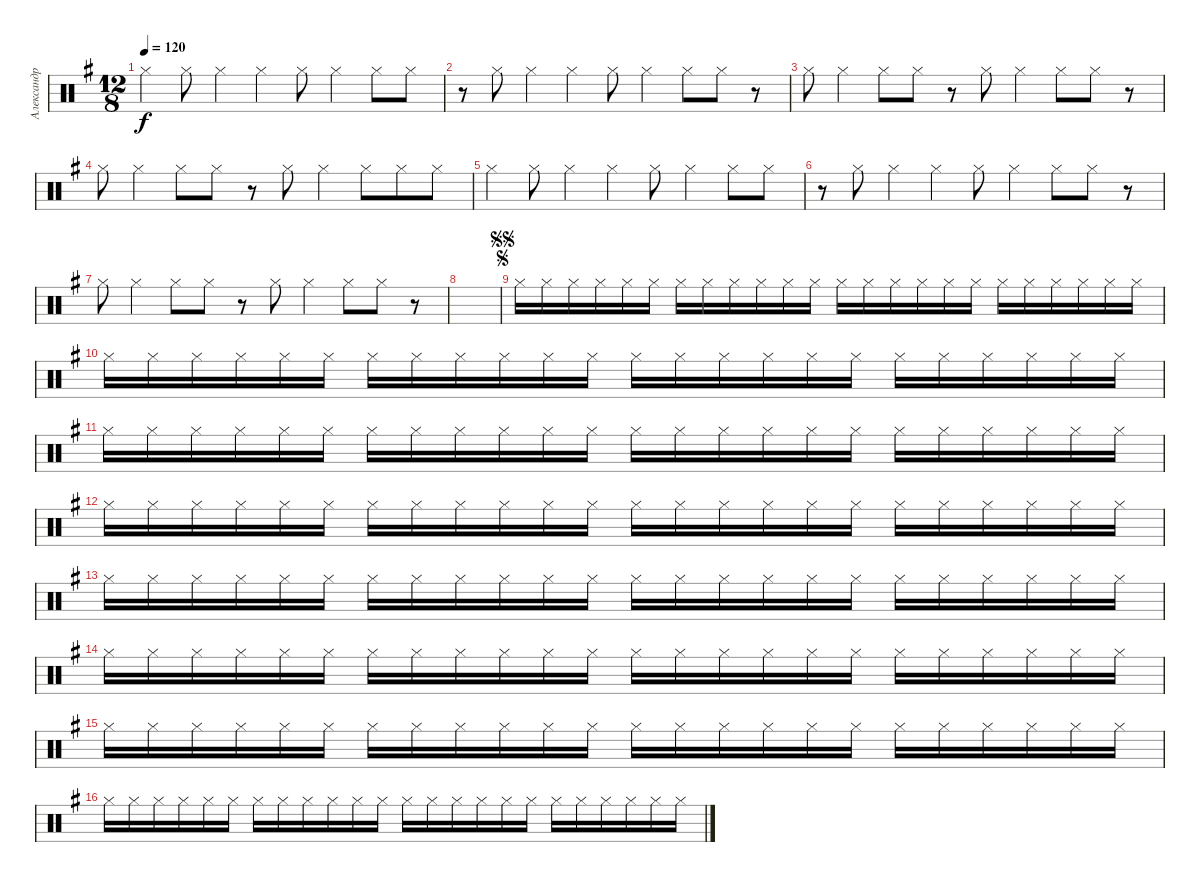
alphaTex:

\track ("Александр Манякин" "Александр ") {instrument percussion}
\staff {score}
\articulation defaults
\ts (12 8)
\tempo 120
\clef neutral
\ks g "Hi-Hat (closed)".4{dy f} "Hi-Hat (closed)".8 "Hi-Hat (closed)".4 "Hi-Hat (closed)".4 "Hi-Hat (closed)".8 "Hi-Hat (closed)".4 "Hi-Hat (closed)".8 "Hi-Hat (closed)".8
|
r.8 "Hi-Hat (closed)".8 "Hi-Hat (closed)".4 "Hi-Hat (closed)".4 "Hi-Hat (closed)".8 "Hi-Hat (closed)".4 "Hi-Hat (closed)".8 "Hi-Hat (closed)".8 r.8 |
"Hi-Hat (closed)".8 "Hi-Hat (closed)".4 "Hi-Hat (closed)".8 "Hi-Hat (closed)".8 r.8 "Hi-Hat (closed)".8 "Hi-Hat (closed)".4 "Hi-Hat (closed)".8 "Hi-Hat (closed)".8 r.8 |
"Hi-Hat (closed)".8 "Hi-Hat (closed)".4 "Hi-Hat (closed)".8 "Hi-Hat (closed)".8 r.8 "Hi-Hat (closed)".8 "Hi-Hat (closed)".4 "Hi-Hat (closed)".8 "Hi-Hat (closed)".8 "Hi-Hat (closed)".8 |
"Hi-Hat (closed)".4 "Hi-Hat (closed)".8 "Hi-Hat (closed)".4 "Hi-Hat (closed)".4 "Hi-Hat (closed)".8 "Hi-Hat (closed)".4 "Hi-Hat (closed)".8 "Hi-Hat (closed)".8 |
r.8 "Hi-Hat (closed)".8 "Hi-Hat (closed)".4 "Hi-Hat (closed)".4 "Hi-Hat (closed)".8 "Hi-Hat (closed)".4 "Hi-Hat (closed)".8 "Hi-Hat (closed)".8 r.8 |
"Hi-Hat (closed)".8 "Hi-Hat (closed)".4 "Hi-Hat (closed)".8 "Hi-Hat (closed)".8 r.8 "Hi-Hat (closed)".8 "Hi-Hat (closed)".4 "Hi-Hat (closed)".8 "Hi-Hat (closed)".8 r.8 |
|
\jump segno
\jump segnosegno "Hi-Hat (closed)".16 "Hi-Hat (closed)".16 "Hi-Hat (closed)".16 "Hi-Hat (closed)".16 "Hi-Hat (closed)".16 "Hi-Hat (closed)".16 "Hi-Hat (closed)".16 "Hi-Hat (closed)".16 "Hi-Hat (closed)".16 "Hi-Hat (closed)".16 "Hi-Hat (closed)".16 "Hi-Hat (closed)".16 "Hi-Hat (closed)".16 "Hi-Hat (closed)".16 "Hi-Hat (closed)".16 "Hi-Hat (closed)".16 "Hi-Hat (closed)".16 "Hi-Hat (closed)".16 "Hi-Hat (closed)".16 "Hi-Hat (closed)".16 "Hi-Hat (closed)".16 "Hi-Hat (closed)".16 "Hi-Hat (closed)".16 "Hi-Hat (closed)".16
|
"Hi-Hat (closed)".16 "Hi-Hat (closed)".16 "Hi-Hat (closed)".16 "Hi-Hat (closed)".16 "Hi-Hat (closed)".16 "Hi-Hat (closed)".16 "Hi-Hat (closed)".16 "Hi-Hat (closed)".16 "Hi-Hat (closed)".16 "Hi-Hat (closed)".16 "Hi-Hat (closed)".16 "Hi-Hat (closed)".16 "Hi-Hat (closed)".16 "Hi-Hat (closed)".16 "Hi-Hat (closed)".16 "Hi-Hat (closed)".16 "Hi-Hat (closed)".16 "Hi-Hat (closed)".16 "Hi-Hat (closed)".16 "Hi-Hat (closed)".16 "Hi-Hat (closed)".16 "Hi-Hat (closed)".16 "Hi-Hat (closed)".16 "Hi-Hat (closed)".16 |
"Hi-Hat (closed)".16 "Hi-Hat (closed)".16 "Hi-Hat (closed)".16 "Hi-Hat (closed)".16 "Hi-Hat (closed)".16 "Hi-Hat (closed)".16 "Hi-Hat (closed)".16 "Hi-Hat (closed)".16 "Hi-Hat (closed)".16 "Hi-Hat (closed)".16 "Hi-Hat (closed)".16 "Hi-Hat (closed)".16 "Hi-Hat (closed)".16 "Hi-Hat (closed)".16 "Hi-Hat (closed)".16 "Hi-Hat (closed)".16 "Hi-Hat (closed)".16 "Hi-Hat (closed)".16 "Hi-Hat (closed)".16 "Hi-Hat (closed)".16 "Hi-Hat (closed)".16 "Hi-Hat (closed)".16 "Hi-Hat (closed)".16 "Hi-Hat (closed)".16 |
"Hi-Hat (closed)".16 "Hi-Hat (closed)".16 "Hi-Hat (closed)".16 "Hi-Hat (closed)".16 "Hi-Hat (closed)".16 "Hi-Hat (closed)".16 "Hi-Hat (closed)".16 "Hi-Hat (closed)".16 "Hi-Hat (closed)".16 "Hi-Hat (closed)".16 "Hi-Hat (closed)".16 "Hi-Hat (closed)".16 "Hi-Hat (closed)".16 "Hi-Hat (closed)".16 "Hi-Hat (closed)".16 "Hi-Hat (closed)".16 "Hi-Hat (closed)".16 "Hi-Hat (closed)".16 "Hi-Hat (closed)".16 "Hi-Hat (closed)".16 "Hi-Hat (closed)".16 "Hi-Hat (closed)".16 "Hi-Hat (closed)".16 "Hi-Hat (closed)".16 |
"Hi-Hat (closed)".16 "Hi-Hat (closed)".16 "Hi-Hat (closed)".16 "Hi-Hat (closed)".16 "Hi-Hat (closed)".16 "Hi-Hat (closed)".16 "Hi-Hat (closed)".16 "Hi-Hat (closed)".16 "Hi-Hat (closed)".16 "Hi-Hat (closed)".16 "Hi-Hat (closed)".16 "Hi-Hat (closed)".16 "Hi-Hat (closed)".16 "Hi-Hat (closed)".16 "Hi-Hat (closed)".16 "Hi-Hat (closed)".16 "Hi-Hat (closed)".16 "Hi-Hat (closed)".16 "Hi-Hat (closed)".16 "Hi-Hat (closed)".16 "Hi-Hat (closed)".16 "Hi-Hat (closed)".16 "Hi-Hat (closed)".16 "Hi-Hat (closed)".16 |
"Hi-Hat (closed)".16 "Hi-Hat (closed)".16 "Hi-Hat (closed)".16 "Hi-Hat (closed)".16 "Hi-Hat (closed)".16 "Hi-Hat (closed)".16 "Hi-Hat (closed)".16 "Hi-Hat (closed)".16 "Hi-Hat (closed)".16 "Hi-Hat (closed)".16 "Hi-Hat (closed)".16 "Hi-Hat (closed)".16 "Hi-Hat (closed)".16 "Hi-Hat (closed)".16 "Hi-Hat (closed)".16 "Hi-Hat (closed)".16 "Hi-Hat (closed)".16 "Hi-Hat (closed)".16 "Hi-Hat (closed)".16 "Hi-Hat (closed)".16 "Hi-Hat (closed)".16 "Hi-Hat (closed)".16 "Hi-Hat (closed)".16 "Hi-Hat (closed)".16 |
"Hi-Hat (closed)".16 "Hi-Hat (closed)".16 "Hi-Hat (closed)".16 "Hi-Hat (closed)".16 "Hi-Hat (closed)".16 "Hi-Hat (closed)".16 "Hi-Hat (closed)".16 "Hi-Hat (closed)".16 "Hi-Hat (closed)".16 "Hi-Hat (closed)".16 "Hi-Hat (closed)".16 "Hi-Hat (closed)".16 "Hi-Hat (closed)".16 "Hi-Hat (closed)".16 "Hi-Hat (closed)".16 "Hi-Hat (closed)".16 "Hi-Hat (closed)".16 "Hi-Hat (closed)".16 "Hi-Hat (closed)".16 "Hi-Hat (closed)".16 "Hi-Hat (closed)".16 "Hi-Hat (closed)".16 "Hi-Hat (closed)".16 "Hi-Hat (closed)".16 |
"Hi-Hat (closed)".16 "Hi-Hat (closed)".16 "Hi-Hat (closed)".16 "Hi-Hat (closed)".16 "Hi-Hat (closed)".16 "Hi-Hat (closed)".16 "Hi-Hat (closed)".16 "Hi-Hat (closed)".16 "Hi-Hat (closed)".16 "Hi-Hat (closed)".16 "Hi-Hat (closed)".16 "Hi-Hat (closed)".16 "Hi-Hat (closed)".16 "Hi-Hat (closed)".16 "Hi-Hat (closed)".16 "Hi-Hat (closed)".16 "Hi-Hat (closed)".16 "Hi-Hat (closed)".16 "Hi-Hat (closed)".16 "Hi-Hat (closed)".16 "Hi-Hat (closed)".16 "Hi-Hat (closed)".16 "Hi-Hat (closed)".16 "Hi-Hat (closed)".16
